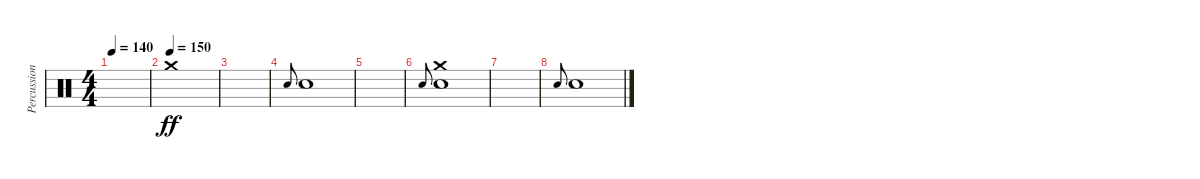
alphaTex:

\track ("Percussion" "Percussion") {instrument percussion}
\staff {score}
\articulation defaults
\ts (4 4)
\tempo 140
\clef neutral
\ks c
|
\tempo (150)
"Crash medium (hit)".1{dy ff} |
|
"Snare (hit) 2".8{gr onbeat} "Snare (hit) 2".1 |
|
"Snare (hit) 2".8{gr onbeat} ("Crash medium (hit)" "Snare (hit) 2").1 |
|
"Snare (hit) 2".8{gr onbeat} "Snare (hit) 2".1
